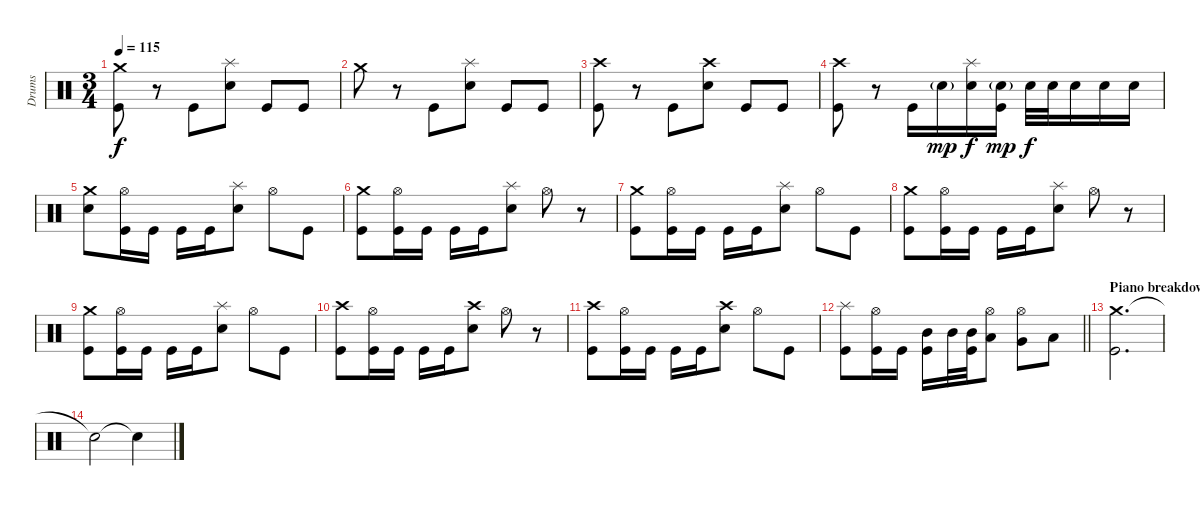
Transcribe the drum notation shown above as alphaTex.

\track ("Drums" "Drums") {instrument percussion}
\staff {score}
\articulation defaults
\ts (3 4)
\tempo 115
\clef neutral
\ks c
("Crash medium (hit)" "Kick (hit)").8{dy f} r.8 "Kick (hit)".8 ("Splash (hit)" "Electric Snare (hit)").8 "Kick (hit)".8 "Kick (hit)".8 |
"Crash medium (hit)".8 r.8 "Kick (hit)".8 ("Splash (hit)" "Electric Snare (hit)").8 "Kick (hit)".8 "Kick (hit)".8 |
("Crash high (hit)" "Kick (hit)").8 r.8 "Kick (hit)".8 ("Crash high (hit)" "Electric Snare (hit)").8 "Kick (hit)".8 "Kick (hit)".8 |
("Crash high (hit)" "Kick (hit)").8 r.8 "Kick (hit)".16 "Electric Snare (hit)"{g}.16{dy mp} ("Splash (hit)" "Electric Snare (hit)").16{dy f} ("Electric Snare (hit)"{g} "Kick (hit)").16{dy mp} "Electric Snare (hit)".32{dy f} "Electric Snare (hit)".32 "Electric Snare (hit)".16 "Electric Snare (hit)".16 "Electric Snare (hit)".16 |
("Crash medium (hit)" "Electric Snare (hit)").8 ("Hi-Hat (open)" "Kick (hit)").16 "Kick (hit)".16 "Kick (hit)".16 "Kick (hit)".16 ("Splash (hit)" "Electric Snare (hit)").8 "Hi-Hat (open)".8 "Kick (hit)".8 |
("Crash medium (hit)" "Kick (hit)").8 ("Hi-Hat (open)" "Kick (hit)").16 "Kick (hit)".16 "Kick (hit)".16 "Kick (hit)".16 ("Splash (hit)" "Electric Snare (hit)").8 "Hi-Hat (open)".8 r.8 |
("Crash medium (hit)" "Kick (hit)").8 ("Hi-Hat (open)" "Kick (hit)").16 "Kick (hit)".16 "Kick (hit)".16 "Kick (hit)".16 ("Splash (hit)" "Electric Snare (hit)").8 "Hi-Hat (open)".8 "Kick (hit)".8 |
("Crash medium (hit)" "Kick (hit)").8 ("Hi-Hat (open)" "Kick (hit)").16 "Kick (hit)".16 "Kick (hit)".16 "Kick (hit)".16 ("Splash (hit)" "Electric Snare (hit)").8 "Hi-Hat (open)".8 r.8 |
("Crash medium (hit)" "Kick (hit)").8 ("Hi-Hat (open)" "Kick (hit)").16 "Kick (hit)".16 "Kick (hit)".16 "Kick (hit)".16 ("Splash (hit)" "Electric Snare (hit)").8 "Hi-Hat (open)".8 "Kick (hit)".8 |
("Crash high (hit)" "Kick (hit)").8 ("Hi-Hat (open)" "Kick (hit)").16 "Kick (hit)".16 "Kick (hit)".16 "Kick (hit)".16 ("Crash high (hit)" "Electric Snare (hit)").8 "Hi-Hat (open)".8 r.8 |
("Crash high (hit)" "Kick (hit)").8 ("Hi-Hat (open)" "Kick (hit)").16 "Kick (hit)".16 "Kick (hit)".16 "Kick (hit)".16 ("Crash high (hit)" "Electric Snare (hit)").8 "Hi-Hat (open)".8 "Kick (hit)".8 |
\barLineRight lightlight
("Splash (hit)" "Kick (hit)").8 ("Hi-Hat (open)" "Kick (hit)").16 "Kick (hit)".16 ("Mid Tom (hit)" "Kick (hit)").16 "Mid Tom (hit)".32 ("Mid Tom (hit)" "Kick (hit)").32 ("Low Tom (hit)" "Hi-Hat (open)").8 ("Very Low Tom (hit)" "Hi-Hat (open)").8 "Low Floor Tom (hit)".8 |
\section ("" "Piano breakdown")
("Crash medium (hit)" "Kick (hit)").2{d} |
"Snare (hit)"{t}.2 "Snare (hit)"{t}.4
